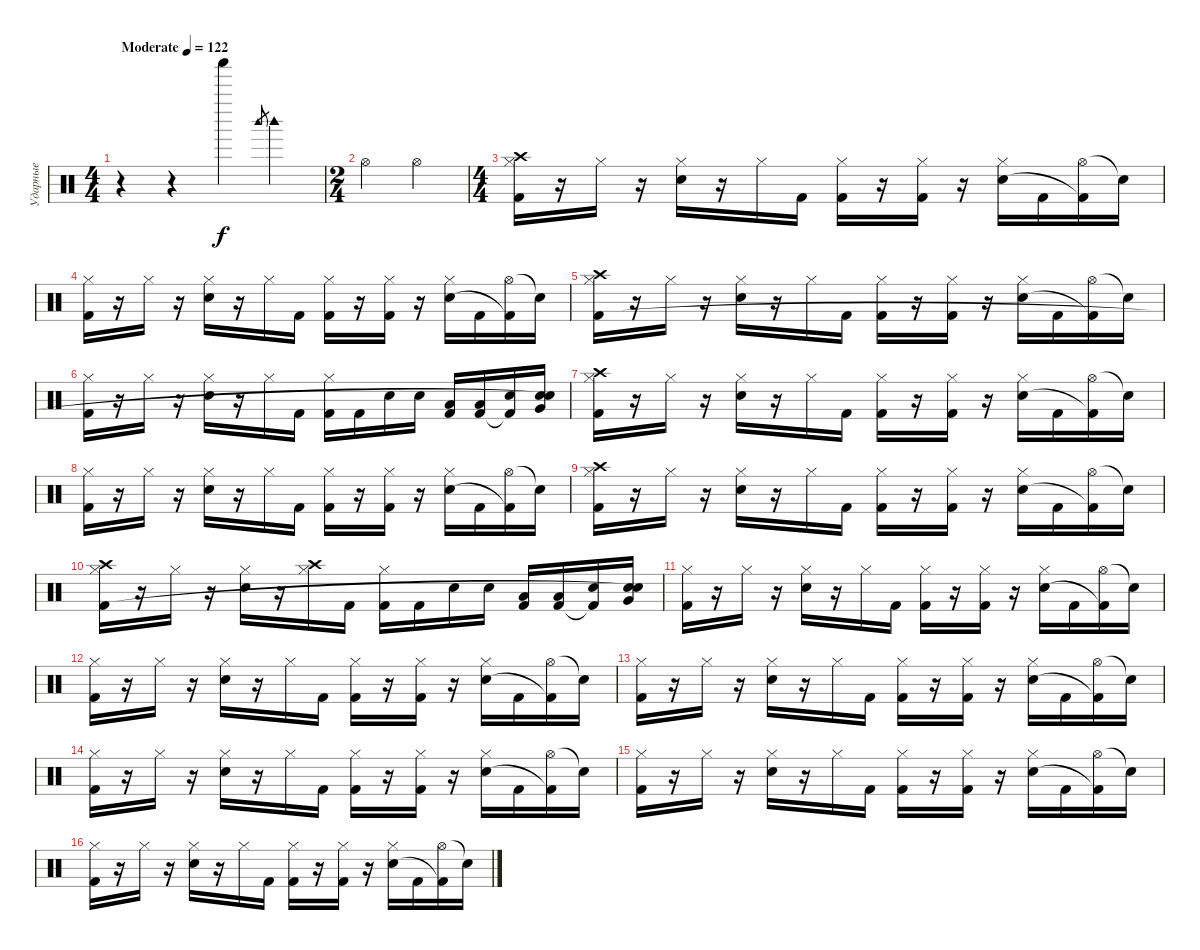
\track ("Ударные" "Ударные") {instrument percussion}
\staff {score}
\articulation defaults
\ts (4 4)
\tempo (122 "Moderate")
\clef neutral
\ks c
r.4{dy f} r.4 "Shaker (hit)".4 "Woodblock high (hit)".8{gr} "Woodblock high (hit)".4 |
\ts (2 4)
"Hi-Hat (open)".4 "Hi-Hat (open)".4 |
\ts (4 4)
("Hi-Hat (closed)" "Crash high (hit)" "Kick (hit) 2").16 r.16 "Hi-Hat (closed)".16 r.16 ("Hi-Hat (closed)" "Snare (hit) 2").16 r.16 "Hi-Hat (closed)".16 "Kick (hit) 2".16 ("Hi-Hat (closed)" "Kick (hit) 2").16 r.16 ("Hi-Hat (closed)" "Kick (hit) 2").16 r.16 ("Hi-Hat (closed)" "Snare (hit) 2").16 "Kick (hit) 2".16 ("Hi-Hat (open)" "Kick (hit) 2"{t}).16 "Snare (hit)"{t}.16 |
("Hi-Hat (closed)" "Kick (hit) 2").16 r.16 "Hi-Hat (closed)".16 r.16 ("Hi-Hat (closed)" "Snare (hit) 2").16 r.16 "Hi-Hat (closed)".16 "Kick (hit) 2".16 ("Hi-Hat (closed)" "Kick (hit) 2").16 r.16 ("Hi-Hat (closed)" "Kick (hit) 2").16 r.16 ("Hi-Hat (closed)" "Snare (hit) 2").16 "Kick (hit) 2".16 ("Hi-Hat (open)" "Kick (hit) 2"{t}).16 "Snare (hit)"{t}.16 |
("Hi-Hat (closed)" "Crash high (hit)" "Kick (hit) 2").16 r.16 "Hi-Hat (closed)".16 r.16 ("Hi-Hat (closed)" "Snare (hit) 2").16 r.16 "Hi-Hat (closed)".16 "Kick (hit) 2".16 ("Hi-Hat (closed)" "Kick (hit) 2").16 r.16 ("Hi-Hat (closed)" "Kick (hit) 2").16 r.16 ("Hi-Hat (closed)" "Snare (hit) 2").16 "Kick (hit) 2".16 ("Hi-Hat (open)" "Kick (hit) 2"{t}).16 "Snare (hit)"{t}.16 |
("Hi-Hat (closed)" "Kick (hit) 2").16 r.16 "Hi-Hat (closed)".16 r.16 ("Hi-Hat (closed)" "Snare (hit) 2").16 r.16 "Hi-Hat (closed)".16 "Kick (hit) 2".16 ("Hi-Hat (closed)" "Kick (hit) 2").16 "Kick (hit) 2".16 "Snare (hit) 2".16 "Snare (hit) 2".16 ("Low Floor Tom (hit)" "Kick (hit) 2").16 ("Low Floor Tom (hit)" "Kick (hit) 2").16 ("Snare (hit) 2" "Kick (hit) 2"{t}).16 ("Very Low Tom (hit)" "Snare (hit) 2" "Snare (hit)"{t}).16 |
("Hi-Hat (closed)" "Crash high (hit)" "Kick (hit) 2").16 r.16 "Hi-Hat (closed)".16 r.16 ("Hi-Hat (closed)" "Snare (hit) 2").16 r.16 "Hi-Hat (closed)".16 "Kick (hit) 2".16 ("Hi-Hat (closed)" "Kick (hit) 2").16 r.16 ("Hi-Hat (closed)" "Kick (hit) 2").16 r.16 ("Hi-Hat (closed)" "Snare (hit) 2").16 "Kick (hit) 2".16 ("Hi-Hat (open)" "Kick (hit) 2"{t}).16 "Snare (hit)"{t}.16 |
("Hi-Hat (closed)" "Kick (hit) 2").16 r.16 "Hi-Hat (closed)".16 r.16 ("Hi-Hat (closed)" "Snare (hit) 2").16 r.16 "Hi-Hat (closed)".16 "Kick (hit) 2".16 ("Hi-Hat (closed)" "Kick (hit) 2").16 r.16 ("Hi-Hat (closed)" "Kick (hit) 2").16 r.16 ("Hi-Hat (closed)" "Snare (hit) 2").16 "Kick (hit) 2".16 ("Hi-Hat (open)" "Kick (hit) 2"{t}).16 "Snare (hit)"{t}.16 |
("Hi-Hat (closed)" "Crash high (hit)" "Kick (hit) 2").16 r.16 "Hi-Hat (closed)".16 r.16 ("Hi-Hat (closed)" "Snare (hit) 2").16 r.16 "Hi-Hat (closed)".16 "Kick (hit) 2".16 ("Hi-Hat (closed)" "Kick (hit) 2").16 r.16 ("Hi-Hat (closed)" "Kick (hit) 2").16 r.16 ("Hi-Hat (closed)" "Snare (hit) 2").16 "Kick (hit) 2".16 ("Hi-Hat (open)" "Kick (hit) 2"{t}).16 "Snare (hit)"{t}.16 |
("Hi-Hat (closed)" "Crash high (hit)" "Kick (hit) 2").16 r.16 "Hi-Hat (closed)".16 r.16 ("Hi-Hat (closed)" "Snare (hit) 2").16 r.16 ("Hi-Hat (closed)" "Crash high (hit)").16 "Kick (hit) 2".16 ("Hi-Hat (closed)" "Kick (hit) 2").16 "Kick (hit) 2".16 "Snare (hit) 2".16 "Snare (hit) 2".16 ("Low Floor Tom (hit)" "Kick (hit) 2").16 ("Low Floor Tom (hit)" "Kick (hit) 2").16 ("Snare (hit) 2" "Kick (hit) 2"{t}).16 ("Very Low Tom (hit)" "Snare (hit) 2" "Snare (hit)"{t}).16 |
("Hi-Hat (closed)" "Kick (hit) 2").16 r.16 "Hi-Hat (closed)".16 r.16 ("Hi-Hat (closed)" "Snare (hit) 2").16 r.16 "Hi-Hat (closed)".16 "Kick (hit) 2".16 ("Hi-Hat (closed)" "Kick (hit) 2").16 r.16 ("Hi-Hat (closed)" "Kick (hit) 2").16 r.16 ("Hi-Hat (closed)" "Snare (hit) 2").16 "Kick (hit) 2".16 ("Hi-Hat (open)" "Kick (hit) 2"{t}).16 "Snare (hit)"{t}.16 |
("Hi-Hat (closed)" "Kick (hit) 2").16 r.16 "Hi-Hat (closed)".16 r.16 ("Hi-Hat (closed)" "Snare (hit) 2").16 r.16 "Hi-Hat (closed)".16 "Kick (hit) 2".16 ("Hi-Hat (closed)" "Kick (hit) 2").16 r.16 ("Hi-Hat (closed)" "Kick (hit) 2").16 r.16 ("Hi-Hat (closed)" "Snare (hit) 2").16 "Kick (hit) 2".16 ("Hi-Hat (open)" "Kick (hit) 2"{t}).16 "Snare (hit)"{t}.16 |
("Hi-Hat (closed)" "Kick (hit) 2").16 r.16 "Hi-Hat (closed)".16 r.16 ("Hi-Hat (closed)" "Snare (hit) 2").16 r.16 "Hi-Hat (closed)".16 "Kick (hit) 2".16 ("Hi-Hat (closed)" "Kick (hit) 2").16 r.16 ("Hi-Hat (closed)" "Kick (hit) 2").16 r.16 ("Hi-Hat (closed)" "Snare (hit) 2").16 "Kick (hit) 2".16 ("Hi-Hat (open)" "Kick (hit) 2"{t}).16 "Snare (hit)"{t}.16 |
("Hi-Hat (closed)" "Kick (hit) 2").16 r.16 "Hi-Hat (closed)".16 r.16 ("Hi-Hat (closed)" "Snare (hit) 2").16 r.16 "Hi-Hat (closed)".16 "Kick (hit) 2".16 ("Hi-Hat (closed)" "Kick (hit) 2").16 r.16 ("Hi-Hat (closed)" "Kick (hit) 2").16 r.16 ("Hi-Hat (closed)" "Snare (hit) 2").16 "Kick (hit) 2".16 ("Hi-Hat (open)" "Kick (hit) 2"{t}).16 "Snare (hit)"{t}.16 |
("Hi-Hat (closed)" "Kick (hit) 2").16 r.16 "Hi-Hat (closed)".16 r.16 ("Hi-Hat (closed)" "Snare (hit) 2").16 r.16 "Hi-Hat (closed)".16 "Kick (hit) 2".16 ("Hi-Hat (closed)" "Kick (hit) 2").16 r.16 ("Hi-Hat (closed)" "Kick (hit) 2").16 r.16 ("Hi-Hat (closed)" "Snare (hit) 2").16 "Kick (hit) 2".16 ("Hi-Hat (open)" "Kick (hit) 2"{t}).16 "Snare (hit)"{t}.16 |
("Hi-Hat (closed)" "Kick (hit) 2").16 r.16 "Hi-Hat (closed)".16 r.16 ("Hi-Hat (closed)" "Snare (hit) 2").16 r.16 "Hi-Hat (closed)".16 "Kick (hit) 2".16 ("Hi-Hat (closed)" "Kick (hit) 2").16 r.16 ("Hi-Hat (closed)" "Kick (hit) 2").16 r.16 ("Hi-Hat (closed)" "Snare (hit) 2").16 "Kick (hit) 2".16 ("Hi-Hat (open)" "Kick (hit) 2"{t}).16 "Snare (hit)"{t}.16
